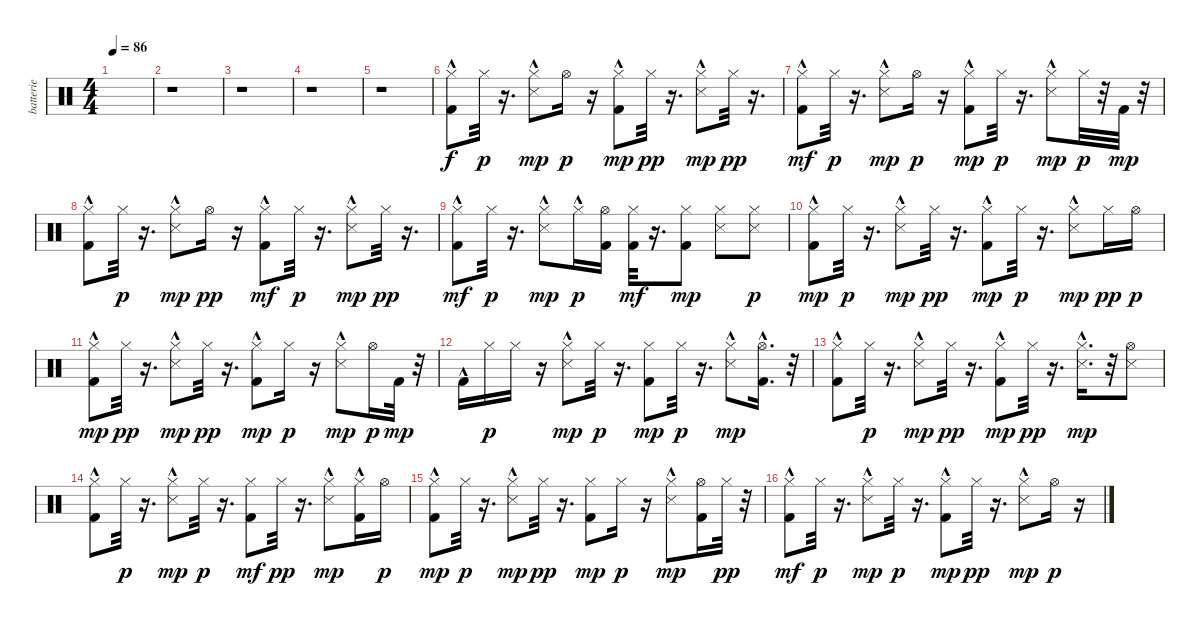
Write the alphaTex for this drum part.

\track ("batterie" "batterie") {instrument percussion}
\staff {score}
\articulation defaults
\ts (4 4)
\tempo 86
\clef neutral
\ks c
|
r.1 |
r.1 |
r.1 |
r.1 |
("Hi-Hat (closed)" "Kick (hit) 2"{hac}).8 "Hi-Hat (closed)".32{dy p} r.16{d} ("Hi-Hat (closed)" "Snare (side stick) 3"{hac}).8{dy mp} "Hi-Hat (open)".16{dy p} r.16 ("Hi-Hat (closed)" "Kick (hit) 2"{hac}).8{dy mp} "Hi-Hat (closed)".32{dy pp} r.16{d} ("Hi-Hat (closed)" "Snare (side stick) 3"{hac}).8{dy mp} "Hi-Hat (closed)".32{dy pp} r.16{d} |
("Hi-Hat (closed)" "Kick (hit) 2"{hac}).8{dy mf} "Hi-Hat (closed)".32{dy p} r.16{d} ("Hi-Hat (closed)" "Snare (side stick) 3"{hac}).8{dy mp} "Hi-Hat (open)".16{dy p} r.16 ("Hi-Hat (closed)" "Kick (hit) 2"{hac}).8{dy mp} "Hi-Hat (closed)".32{dy p} r.16{d} ("Hi-Hat (closed)" "Snare (side stick) 3"{hac}).8{dy mp} "Hi-Hat (closed)".32{dy p} r.32 "Kick (hit) 2".32{dy mp} r.32 |
("Hi-Hat (closed)" "Kick (hit) 2"{hac}).8 "Hi-Hat (closed)".32{dy p} r.16{d} ("Hi-Hat (closed)" "Snare (side stick) 3"{hac}).8{dy mp} "Hi-Hat (open)".16{dy pp} r.16 ("Hi-Hat (closed)" "Kick (hit) 2"{hac}).8{dy mf} "Hi-Hat (closed)".32{dy p} r.16{d} ("Hi-Hat (closed)" "Snare (side stick) 3"{hac}).8{dy mp} "Hi-Hat (closed)".32{dy pp} r.16{d} |
("Hi-Hat (closed)" "Kick (hit) 2"{hac}).8{dy mf} "Hi-Hat (closed)".32{dy p} r.16{d} ("Hi-Hat (closed)" "Snare (side stick) 3"{hac}).8{dy mp} "Hi-Hat (closed)"{hac}.16{dy p} ("Hi-Hat (open)" "Kick (hit) 2").16 ("Hi-Hat (closed)" "Kick (hit) 2").32{dy mf} r.16{d} ("Hi-Hat (closed)" "Kick (hit) 2").8{dy mp} ("Hi-Hat (closed)" "Snare (side stick) 3").8 ("Hi-Hat (closed)" "Snare (side stick) 3").8{dy p} |
("Hi-Hat (closed)" "Kick (hit) 2"{hac}).8{dy mp} "Hi-Hat (closed)".32{dy p} r.16{d} ("Hi-Hat (closed)" "Snare (side stick) 3"{hac}).8{dy mp} "Hi-Hat (closed)".32{dy pp} r.16{d} ("Hi-Hat (closed)" "Kick (hit) 2"{hac}).8{dy mp} "Hi-Hat (closed)".32{dy p} r.16{d} ("Hi-Hat (closed)" "Snare (side stick) 3"{hac}).8{dy mp} "Hi-Hat (closed)".16{dy pp} "Hi-Hat (open)".16{dy p} |
("Hi-Hat (closed)" "Kick (hit) 2"{hac}).8{dy mp} "Hi-Hat (closed)".32{dy pp} r.16{d} ("Hi-Hat (closed)" "Snare (side stick) 3"{hac}).8{dy mp} "Hi-Hat (closed)".32{dy pp} r.16{d} ("Hi-Hat (closed)" "Kick (hit) 2"{hac}).8{dy mp} "Hi-Hat (closed)".16{dy p} r.16 ("Hi-Hat (closed)" "Snare (side stick) 3"{hac}).8{dy mp} "Hi-Hat (open)".16{dy p} "Kick (hit) 2".32{dy mp} r.32 |
"Kick (hit) 2"{hac}.16 "Hi-Hat (closed)".16{dy p} "Hi-Hat (closed)".16 r.16 ("Hi-Hat (closed)" "Snare (side stick) 3"{hac}).8{dy mp} "Hi-Hat (closed)".32{dy p} r.16{d} ("Hi-Hat (closed)" "Kick (hit) 2").8{dy mp} "Hi-Hat (closed)".32{dy p} r.16{d} ("Hi-Hat (closed)" "Snare (side stick) 3"{hac}).8{dy mp} ("Hi-Hat (open)" "Kick (hit) 2"{hac}).16{d} r.32 |
("Hi-Hat (closed)" "Kick (hit) 2"{hac}).8 "Hi-Hat (closed)".32{dy p} r.16{d} ("Hi-Hat (closed)" "Snare (side stick) 3"{hac}).8{dy mp} "Hi-Hat (closed)".32{dy pp} r.16{d} ("Hi-Hat (closed)" "Kick (hit) 2"{hac}).8{dy mp} "Hi-Hat (closed)".32{dy pp} r.16{d} ("Hi-Hat (closed)" "Snare (side stick) 3"{hac}).16{d dy mp} r.32 ("Hi-Hat (open)" "Snare (side stick) 3").8 |
("Hi-Hat (closed)" "Kick (hit) 2"{hac}).8 "Hi-Hat (closed)".32{dy p} r.16{d} ("Hi-Hat (closed)" "Snare (side stick) 3"{hac}).8{dy mp} "Hi-Hat (closed)".32{dy p} r.16{d} ("Hi-Hat (closed)" "Kick (hit) 2").8{dy mf} "Hi-Hat (closed)".32{dy pp} r.16{d} ("Hi-Hat (closed)" "Snare (side stick) 3"{hac}).8{dy mp} ("Hi-Hat (closed)"{hac} "Kick (hit) 2").16 "Hi-Hat (open)".16{dy p} |
("Hi-Hat (closed)" "Kick (hit) 2"{hac}).8{dy mp} "Hi-Hat (closed)".32{dy p} r.16{d} ("Hi-Hat (closed)" "Snare (side stick) 3"{hac}).8{dy mp} "Hi-Hat (closed)".32{dy pp} r.16{d} ("Hi-Hat (closed)" "Kick (hit) 2").8{dy mp} "Hi-Hat (closed)".16{dy p} r.16 ("Hi-Hat (closed)" "Snare (side stick) 3"{hac}).8{dy mp} ("Hi-Hat (open)" "Kick (hit) 2").16 "Hi-Hat (closed)".32{dy pp} r.32 |
("Hi-Hat (closed)" "Kick (hit) 2"{hac}).8{dy mf} "Hi-Hat (closed)".32{dy p} r.16{d} ("Hi-Hat (closed)" "Snare (side stick) 3"{hac}).8{dy mp} "Hi-Hat (closed)".32{dy p} r.16{d} ("Hi-Hat (closed)" "Kick (hit) 2"{hac}).8{dy mp} "Hi-Hat (closed)".32{dy pp} r.16{d} ("Hi-Hat (closed)" "Snare (side stick) 3"{hac}).8{dy mp} "Hi-Hat (open)".16{dy p} r.16
